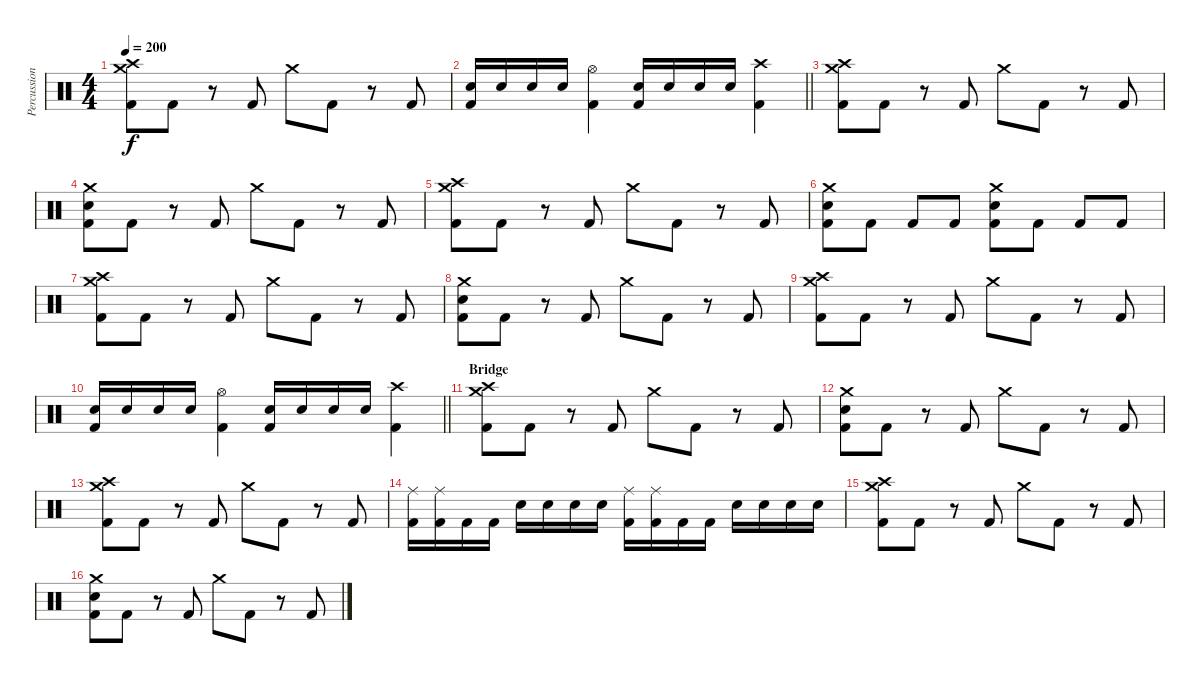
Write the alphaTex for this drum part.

\track ("Percussion" "Percussion") {instrument percussion}
\staff {score}
\articulation defaults
\ts (4 4)
\tempo 200
\clef neutral
\ks c
("Crash medium (hit)" "Crash high (hit)" "Kick (hit) 2").8{dy f} "Kick (hit) 2".8 r.8 "Kick (hit) 2".8 "Crash medium (hit)".8 "Kick (hit) 2".8 r.8 "Kick (hit) 2".8 |
\barLineRight lightlight
("Electric Snare (hit)" "Kick (hit) 2").16 "Electric Snare (hit)".16 "Electric Snare (hit)".16 "Electric Snare (hit)".16 ("Hi-Hat (open)" "Kick (hit) 2").4 ("Electric Snare (hit)" "Kick (hit) 2").16 "Electric Snare (hit)".16 "Electric Snare (hit)".16 "Electric Snare (hit)".16 ("Crash high (hit)" "Kick (hit) 2").4 |
("Crash medium (hit)" "Crash high (hit)" "Kick (hit) 2").8 "Kick (hit) 2".8 r.8 "Kick (hit) 2".8 "Crash medium (hit)".8 "Kick (hit) 2".8 r.8 "Kick (hit) 2".8 |
("Crash medium (hit)" "Electric Snare (hit)" "Kick (hit) 2").8 "Kick (hit) 2".8 r.8 "Kick (hit) 2".8 "Crash medium (hit)".8 "Kick (hit) 2".8 r.8 "Kick (hit) 2".8 |
("Crash medium (hit)" "Crash high (hit)" "Kick (hit) 2").8 "Kick (hit) 2".8 r.8 "Kick (hit) 2".8 "Crash medium (hit)".8 "Kick (hit) 2".8 r.8 "Kick (hit) 2".8 |
("Crash medium (hit)" "Electric Snare (hit)" "Kick (hit) 2").8 "Kick (hit) 2".8 "Kick (hit) 2".8 "Kick (hit) 2".8 ("Crash medium (hit)" "Electric Snare (hit)" "Kick (hit) 2").8 "Kick (hit) 2".8 "Kick (hit) 2".8 "Kick (hit) 2".8 |
("Crash medium (hit)" "Crash high (hit)" "Kick (hit) 2").8 "Kick (hit) 2".8 r.8 "Kick (hit) 2".8 "Crash medium (hit)".8 "Kick (hit) 2".8 r.8 "Kick (hit) 2".8 |
("Crash medium (hit)" "Electric Snare (hit)" "Kick (hit) 2").8 "Kick (hit) 2".8 r.8 "Kick (hit) 2".8 "Crash medium (hit)".8 "Kick (hit) 2".8 r.8 "Kick (hit) 2".8 |
("Crash medium (hit)" "Crash high (hit)" "Kick (hit) 2").8 "Kick (hit) 2".8 r.8 "Kick (hit) 2".8 "Crash medium (hit)".8 "Kick (hit) 2".8 r.8 "Kick (hit) 2".8 |
\barLineRight lightlight
("Electric Snare (hit)" "Kick (hit) 2").16 "Electric Snare (hit)".16 "Electric Snare (hit)".16 "Electric Snare (hit)".16 ("Hi-Hat (open)" "Kick (hit) 2").4 ("Electric Snare (hit)" "Kick (hit) 2").16 "Electric Snare (hit)".16 "Electric Snare (hit)".16 "Electric Snare (hit)".16 ("Crash high (hit)" "Kick (hit) 2").4 |
\section ("" "Bridge")
("Crash medium (hit)" "Crash high (hit)" "Kick (hit) 2").8 "Kick (hit) 2".8 r.8 "Kick (hit) 2".8 "Crash medium (hit)".8 "Kick (hit) 2".8 r.8 "Kick (hit) 2".8 |
("Crash medium (hit)" "Electric Snare (hit)" "Kick (hit) 2").8 "Kick (hit) 2".8 r.8 "Kick (hit) 2".8 "Crash medium (hit)".8 "Kick (hit) 2".8 r.8 "Kick (hit) 2".8 |
("Crash medium (hit)" "Crash high (hit)" "Kick (hit) 2").8 "Kick (hit) 2".8 r.8 "Kick (hit) 2".8 "Crash medium (hit)".8 "Kick (hit) 2".8 r.8 "Kick (hit) 2".8 |
("Ride (middle)" "Kick (hit) 2").16 ("Ride (middle)" "Kick (hit) 2").16 "Kick (hit) 2".16 "Kick (hit) 2".16 "Electric Snare (hit)".16 "Electric Snare (hit)".16 "Electric Snare (hit)".16 "Electric Snare (hit)".16 ("Ride (middle)" "Kick (hit) 2").16 ("Ride (middle)" "Kick (hit) 2").16 "Kick (hit) 2".16 "Kick (hit) 2".16 "Electric Snare (hit)".16 "Electric Snare (hit)".16 "Electric Snare (hit)".16 "Electric Snare (hit)".16 |
("Crash medium (hit)" "Crash high (hit)" "Kick (hit) 2").8 "Kick (hit) 2".8 r.8 "Kick (hit) 2".8 "Crash medium (hit)".8 "Kick (hit) 2".8 r.8 "Kick (hit) 2".8 |
("Crash medium (hit)" "Electric Snare (hit)" "Kick (hit) 2").8 "Kick (hit) 2".8 r.8 "Kick (hit) 2".8 "Crash medium (hit)".8 "Kick (hit) 2".8 r.8 "Kick (hit) 2".8
